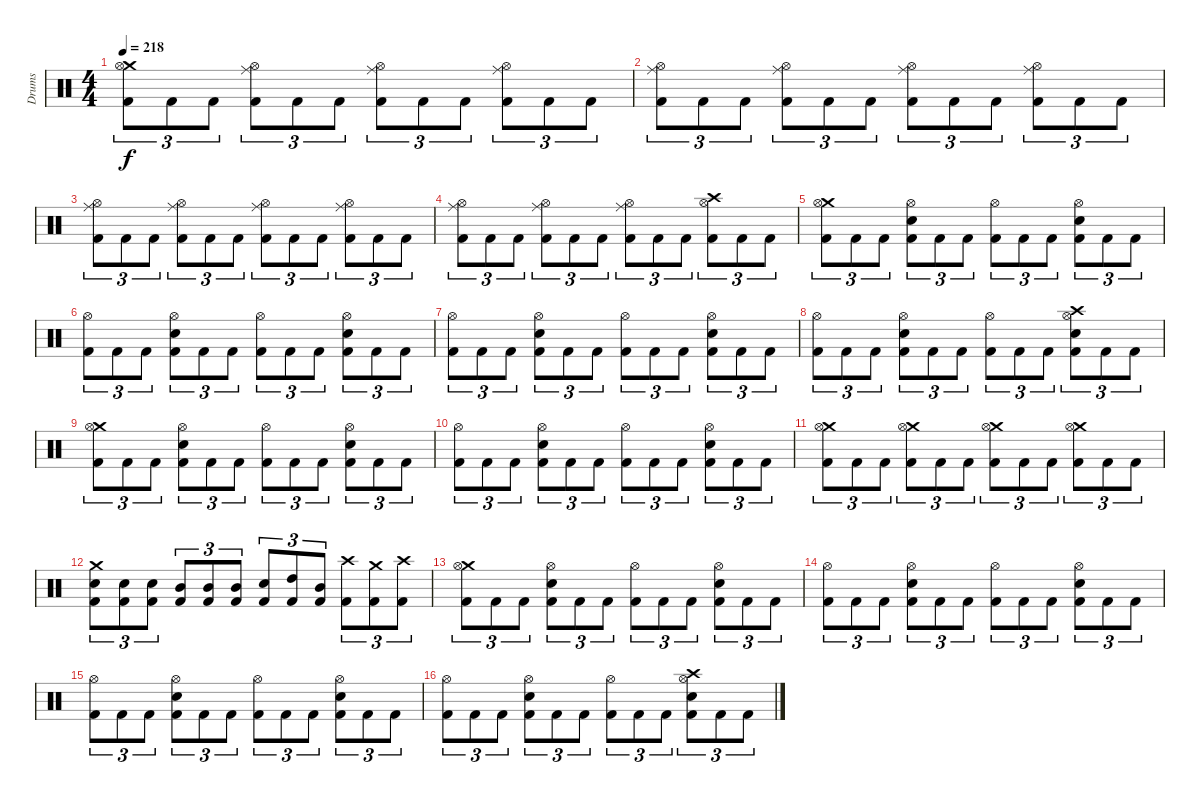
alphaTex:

\track ("Drums" "Drums") {instrument percussion}
\staff {score}
\articulation defaults
\ts (4 4)
\tempo 218
\clef neutral
\ks c
("Crash medium (hit)" "Hi-Hat (open)" "Kick (hit) 2").8{tu (3 2) dy f} "Kick (hit) 2".8{tu (3 2)} "Kick (hit) 2".8{tu (3 2)} ("Ride (middle)" "Hi-Hat (open)" "Kick (hit) 2").8{tu (3 2)} "Kick (hit) 2".8{tu (3 2)} "Kick (hit) 2".8{tu (3 2)} ("Ride (middle)" "Hi-Hat (open)" "Kick (hit) 2").8{tu (3 2)} "Kick (hit) 2".8{tu (3 2)} "Kick (hit) 2".8{tu (3 2)} ("Ride (middle)" "Hi-Hat (open)" "Kick (hit) 2").8{tu (3 2)} "Kick (hit) 2".8{tu (3 2)} "Kick (hit) 2".8{tu (3 2)} |
("Ride (middle)" "Hi-Hat (open)" "Kick (hit) 2").8{tu (3 2)} "Kick (hit) 2".8{tu (3 2)} "Kick (hit) 2".8{tu (3 2)} ("Ride (middle)" "Hi-Hat (open)" "Kick (hit) 2").8{tu (3 2)} "Kick (hit) 2".8{tu (3 2)} "Kick (hit) 2".8{tu (3 2)} ("Ride (middle)" "Hi-Hat (open)" "Kick (hit) 2").8{tu (3 2)} "Kick (hit) 2".8{tu (3 2)} "Kick (hit) 2".8{tu (3 2)} ("Ride (middle)" "Hi-Hat (open)" "Kick (hit) 2").8{tu (3 2)} "Kick (hit) 2".8{tu (3 2)} "Kick (hit) 2".8{tu (3 2)} |
("Ride (middle)" "Hi-Hat (open)" "Kick (hit) 2").8{tu (3 2)} "Kick (hit) 2".8{tu (3 2)} "Kick (hit) 2".8{tu (3 2)} ("Ride (middle)" "Hi-Hat (open)" "Kick (hit) 2").8{tu (3 2)} "Kick (hit) 2".8{tu (3 2)} "Kick (hit) 2".8{tu (3 2)} ("Ride (middle)" "Hi-Hat (open)" "Kick (hit) 2").8{tu (3 2)} "Kick (hit) 2".8{tu (3 2)} "Kick (hit) 2".8{tu (3 2)} ("Ride (middle)" "Hi-Hat (open)" "Kick (hit) 2").8{tu (3 2)} "Kick (hit) 2".8{tu (3 2)} "Kick (hit) 2".8{tu (3 2)} |
("Ride (middle)" "Hi-Hat (open)" "Kick (hit) 2").8{tu (3 2)} "Kick (hit) 2".8{tu (3 2)} "Kick (hit) 2".8{tu (3 2)} ("Ride (middle)" "Hi-Hat (open)" "Kick (hit) 2").8{tu (3 2)} "Kick (hit) 2".8{tu (3 2)} "Kick (hit) 2".8{tu (3 2)} ("Ride (middle)" "Hi-Hat (open)" "Kick (hit) 2").8{tu (3 2)} "Kick (hit) 2".8{tu (3 2)} "Kick (hit) 2".8{tu (3 2)} ("Crash high (hit)" "Hi-Hat (open)" "Kick (hit) 2").8{tu (3 2)} "Kick (hit) 2".8{tu (3 2)} "Kick (hit) 2".8{tu (3 2)} |
("Crash medium (hit)" "Hi-Hat (open)" "Kick (hit) 2").8{tu (3 2)} "Kick (hit) 2".8{tu (3 2)} "Kick (hit) 2".8{tu (3 2)} ("Hi-Hat (open)" "Electric Snare (hit)" "Kick (hit) 2").8{tu (3 2)} "Kick (hit) 2".8{tu (3 2)} "Kick (hit) 2".8{tu (3 2)} ("Hi-Hat (open)" "Kick (hit) 2").8{tu (3 2)} "Kick (hit) 2".8{tu (3 2)} "Kick (hit) 2".8{tu (3 2)} ("Hi-Hat (open)" "Electric Snare (hit)" "Kick (hit) 2").8{tu (3 2)} "Kick (hit) 2".8{tu (3 2)} "Kick (hit) 2".8{tu (3 2)} |
("Hi-Hat (open)" "Kick (hit) 2").8{tu (3 2)} "Kick (hit) 2".8{tu (3 2)} "Kick (hit) 2".8{tu (3 2)} ("Hi-Hat (open)" "Electric Snare (hit)" "Kick (hit) 2").8{tu (3 2)} "Kick (hit) 2".8{tu (3 2)} "Kick (hit) 2".8{tu (3 2)} ("Hi-Hat (open)" "Kick (hit) 2").8{tu (3 2)} "Kick (hit) 2".8{tu (3 2)} "Kick (hit) 2".8{tu (3 2)} ("Hi-Hat (open)" "Electric Snare (hit)" "Kick (hit) 2").8{tu (3 2)} "Kick (hit) 2".8{tu (3 2)} "Kick (hit) 2".8{tu (3 2)} |
("Hi-Hat (open)" "Kick (hit) 2").8{tu (3 2)} "Kick (hit) 2".8{tu (3 2)} "Kick (hit) 2".8{tu (3 2)} ("Hi-Hat (open)" "Electric Snare (hit)" "Kick (hit) 2").8{tu (3 2)} "Kick (hit) 2".8{tu (3 2)} "Kick (hit) 2".8{tu (3 2)} ("Hi-Hat (open)" "Kick (hit) 2").8{tu (3 2)} "Kick (hit) 2".8{tu (3 2)} "Kick (hit) 2".8{tu (3 2)} ("Hi-Hat (open)" "Electric Snare (hit)" "Kick (hit) 2").8{tu (3 2)} "Kick (hit) 2".8{tu (3 2)} "Kick (hit) 2".8{tu (3 2)} |
("Hi-Hat (open)" "Kick (hit) 2").8{tu (3 2)} "Kick (hit) 2".8{tu (3 2)} "Kick (hit) 2".8{tu (3 2)} ("Hi-Hat (open)" "Electric Snare (hit)" "Kick (hit) 2").8{tu (3 2)} "Kick (hit) 2".8{tu (3 2)} "Kick (hit) 2".8{tu (3 2)} ("Hi-Hat (open)" "Kick (hit) 2").8{tu (3 2)} "Kick (hit) 2".8{tu (3 2)} "Kick (hit) 2".8{tu (3 2)} ("Crash high (hit)" "Hi-Hat (open)" "Electric Snare (hit)" "Kick (hit) 2").8{tu (3 2)} "Kick (hit) 2".8{tu (3 2)} "Kick (hit) 2".8{tu (3 2)} |
("Crash medium (hit)" "Hi-Hat (open)" "Kick (hit) 2").8{tu (3 2)} "Kick (hit) 2".8{tu (3 2)} "Kick (hit) 2".8{tu (3 2)} ("Hi-Hat (open)" "Electric Snare (hit)" "Kick (hit) 2").8{tu (3 2)} "Kick (hit) 2".8{tu (3 2)} "Kick (hit) 2".8{tu (3 2)} ("Hi-Hat (open)" "Kick (hit) 2").8{tu (3 2)} "Kick (hit) 2".8{tu (3 2)} "Kick (hit) 2".8{tu (3 2)} ("Hi-Hat (open)" "Electric Snare (hit)" "Kick (hit) 2").8{tu (3 2)} "Kick (hit) 2".8{tu (3 2)} "Kick (hit) 2".8{tu (3 2)} |
("Hi-Hat (open)" "Kick (hit) 2").8{tu (3 2)} "Kick (hit) 2".8{tu (3 2)} "Kick (hit) 2".8{tu (3 2)} ("Hi-Hat (open)" "Electric Snare (hit)" "Kick (hit) 2").8{tu (3 2)} "Kick (hit) 2".8{tu (3 2)} "Kick (hit) 2".8{tu (3 2)} ("Hi-Hat (open)" "Kick (hit) 2").8{tu (3 2)} "Kick (hit) 2".8{tu (3 2)} "Kick (hit) 2".8{tu (3 2)} ("Hi-Hat (open)" "Electric Snare (hit)" "Kick (hit) 2").8{tu (3 2)} "Kick (hit) 2".8{tu (3 2)} "Kick (hit) 2".8{tu (3 2)} |
("Crash medium (hit)" "Hi-Hat (open)" "Kick (hit) 2").8{tu (3 2)} "Kick (hit) 2".8{tu (3 2)} "Kick (hit) 2".8{tu (3 2)} ("Crash medium (hit)" "Hi-Hat (open)" "Kick (hit) 2").8{tu (3 2)} "Kick (hit) 2".8{tu (3 2)} "Kick (hit) 2".8{tu (3 2)} ("Crash medium (hit)" "Hi-Hat (open)" "Kick (hit) 2").8{tu (3 2)} "Kick (hit) 2".8{tu (3 2)} "Kick (hit) 2".8{tu (3 2)} ("Crash medium (hit)" "Hi-Hat (open)" "Kick (hit) 2").8{tu (3 2)} "Kick (hit) 2".8{tu (3 2)} "Kick (hit) 2".8{tu (3 2)} |
("Crash medium (hit)" "Electric Snare (hit)" "Kick (hit) 2").8{tu (3 2)} ("Electric Snare (hit)" "Kick (hit) 2").8{tu (3 2)} ("Electric Snare (hit)" "Kick (hit) 2").8{tu (3 2)} ("Mid Tom (hit)" "Kick (hit) 2").8{tu (3 2)} ("Mid Tom (hit)" "Kick (hit) 2").8{tu (3 2)} ("Mid Tom (hit)" "Kick (hit) 2").8{tu (3 2)} ("Electric Snare (hit)" "Kick (hit) 2").8{tu (3 2)} ("High Tom (hit)" "Kick (hit) 2").8{tu (3 2)} ("Mid Tom (hit)" "Kick (hit) 2").8{tu (3 2)} ("Crash high (hit)" "Kick (hit) 2").8{tu (3 2)} ("Crash medium (hit)" "Kick (hit) 2").8{tu (3 2)} ("Crash high (hit)" "Kick (hit) 2").8{tu (3 2)} |
("Crash medium (hit)" "Hi-Hat (open)" "Kick (hit) 2").8{tu (3 2)} "Kick (hit) 2".8{tu (3 2)} "Kick (hit) 2".8{tu (3 2)} ("Hi-Hat (open)" "Electric Snare (hit)" "Kick (hit) 2").8{tu (3 2)} "Kick (hit) 2".8{tu (3 2)} "Kick (hit) 2".8{tu (3 2)} ("Hi-Hat (open)" "Kick (hit) 2").8{tu (3 2)} "Kick (hit) 2".8{tu (3 2)} "Kick (hit) 2".8{tu (3 2)} ("Hi-Hat (open)" "Electric Snare (hit)" "Kick (hit) 2").8{tu (3 2)} "Kick (hit) 2".8{tu (3 2)} "Kick (hit) 2".8{tu (3 2)} |
("Hi-Hat (open)" "Kick (hit) 2").8{tu (3 2)} "Kick (hit) 2".8{tu (3 2)} "Kick (hit) 2".8{tu (3 2)} ("Hi-Hat (open)" "Electric Snare (hit)" "Kick (hit) 2").8{tu (3 2)} "Kick (hit) 2".8{tu (3 2)} "Kick (hit) 2".8{tu (3 2)} ("Hi-Hat (open)" "Kick (hit) 2").8{tu (3 2)} "Kick (hit) 2".8{tu (3 2)} "Kick (hit) 2".8{tu (3 2)} ("Hi-Hat (open)" "Electric Snare (hit)" "Kick (hit) 2").8{tu (3 2)} "Kick (hit) 2".8{tu (3 2)} "Kick (hit) 2".8{tu (3 2)} |
("Hi-Hat (open)" "Kick (hit) 2").8{tu (3 2)} "Kick (hit) 2".8{tu (3 2)} "Kick (hit) 2".8{tu (3 2)} ("Hi-Hat (open)" "Electric Snare (hit)" "Kick (hit) 2").8{tu (3 2)} "Kick (hit) 2".8{tu (3 2)} "Kick (hit) 2".8{tu (3 2)} ("Hi-Hat (open)" "Kick (hit) 2").8{tu (3 2)} "Kick (hit) 2".8{tu (3 2)} "Kick (hit) 2".8{tu (3 2)} ("Hi-Hat (open)" "Electric Snare (hit)" "Kick (hit) 2").8{tu (3 2)} "Kick (hit) 2".8{tu (3 2)} "Kick (hit) 2".8{tu (3 2)} |
("Hi-Hat (open)" "Kick (hit) 2").8{tu (3 2)} "Kick (hit) 2".8{tu (3 2)} "Kick (hit) 2".8{tu (3 2)} ("Hi-Hat (open)" "Electric Snare (hit)" "Kick (hit) 2").8{tu (3 2)} "Kick (hit) 2".8{tu (3 2)} "Kick (hit) 2".8{tu (3 2)} ("Hi-Hat (open)" "Kick (hit) 2").8{tu (3 2)} "Kick (hit) 2".8{tu (3 2)} "Kick (hit) 2".8{tu (3 2)} ("Crash high (hit)" "Hi-Hat (open)" "Electric Snare (hit)" "Kick (hit) 2").8{tu (3 2)} "Kick (hit) 2".8{tu (3 2)} "Kick (hit) 2".8{tu (3 2)}
